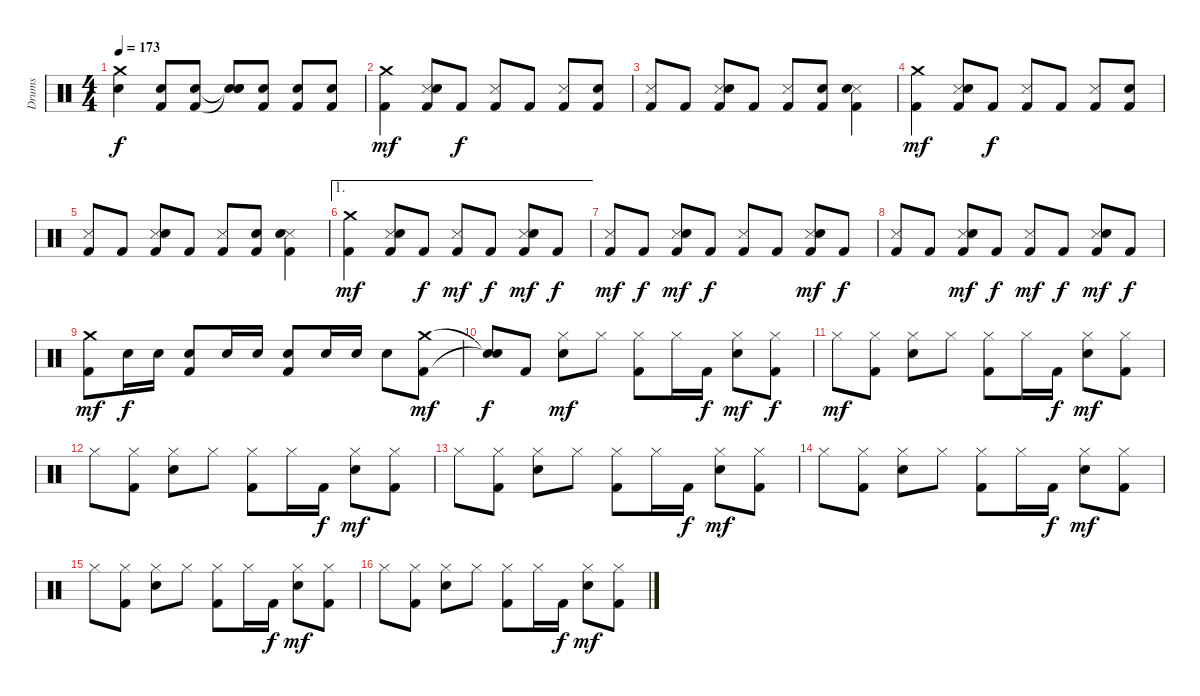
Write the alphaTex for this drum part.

\track ("Drums" "Drums") {instrument percussion}
\staff {score}
\articulation defaults
\ts (4 4)
\tempo 173
\clef neutral
\ks c
("Crash medium (hit)" "Electric Snare (hit)").4{dy f} ("Electric Snare (hit)" "Kick (hit) 2").8 ("Electric Snare (hit)" "Kick (hit) 2").8 ("Snare (hit)"{t} "Snare (hit)"{t} "Snare (hit)").8 ("Electric Snare (hit)" "Kick (hit) 2").8 ("Electric Snare (hit)" "Kick (hit) 2").8 ("Electric Snare (hit)" "Kick (hit) 2").8 |
("Crash medium (hit)" "Kick (hit) 2").4{dy mf} ("Metronome (hit)" "Electric Snare (hit)" "Kick (hit) 2").8 "Kick (hit) 2".8{dy f} ("Metronome (hit)" "Kick (hit) 2").8 "Kick (hit) 2".8 ("Metronome (hit)" "Kick (hit) 2").8 ("Electric Snare (hit)" "Kick (hit) 2").8 |
("Metronome (hit)" "Kick (hit) 2").8 "Kick (hit) 2".8 ("Metronome (hit)" "Electric Snare (hit)" "Kick (hit) 2").8 "Kick (hit) 2".8 ("Metronome (hit)" "Kick (hit) 2").8 ("Electric Snare (hit)" "Kick (hit) 2").8 ("Metronome (hit)" "Electric Snare (hit)" "Kick (hit) 2").4 |
("Crash medium (hit)" "Kick (hit) 2").4{dy mf} ("Metronome (hit)" "Electric Snare (hit)" "Kick (hit) 2").8 "Kick (hit) 2".8{dy f} ("Metronome (hit)" "Kick (hit) 2").8 "Kick (hit) 2".8 ("Metronome (hit)" "Kick (hit) 2").8 ("Electric Snare (hit)" "Kick (hit) 2").8 |
("Metronome (hit)" "Kick (hit) 2").8 "Kick (hit) 2".8 ("Metronome (hit)" "Electric Snare (hit)" "Kick (hit) 2").8 "Kick (hit) 2".8 ("Metronome (hit)" "Kick (hit) 2").8 ("Electric Snare (hit)" "Kick (hit) 2").8 ("Metronome (hit)" "Electric Snare (hit)" "Kick (hit) 2").4 |
\ae 1
("Crash medium (hit)" "Kick (hit) 2").4{dy mf} ("Metronome (hit)" "Electric Snare (hit)" "Kick (hit) 2").8 "Kick (hit) 2".8{dy f} ("Metronome (hit)" "Kick (hit) 2").8{dy mf} "Kick (hit) 2".8{dy f} ("Metronome (hit)" "Electric Snare (hit)" "Kick (hit) 2").8{dy mf} "Kick (hit) 2".8{dy f} |
("Metronome (hit)" "Kick (hit) 2").8{dy mf} "Kick (hit) 2".8{dy f} ("Metronome (hit)" "Electric Snare (hit)" "Kick (hit) 2").8{dy mf} "Kick (hit) 2".8{dy f} ("Metronome (hit)" "Kick (hit) 2").8 "Kick (hit) 2".8 ("Metronome (hit)" "Electric Snare (hit)" "Kick (hit) 2").8{dy mf} "Kick (hit) 2".8{dy f} |
("Metronome (hit)" "Kick (hit) 2").8 "Kick (hit) 2".8 ("Metronome (hit)" "Electric Snare (hit)" "Kick (hit) 2").8{dy mf} "Kick (hit) 2".8{dy f} ("Metronome (hit)" "Kick (hit) 2").8{dy mf} "Kick (hit) 2".8{dy f} ("Metronome (hit)" "Electric Snare (hit)" "Kick (hit) 2").8{dy mf} "Kick (hit) 2".8{dy f} |
("Crash medium (hit)" "Kick (hit) 2").8{dy mf} "Electric Snare (hit)".16{dy f} "Electric Snare (hit)".16 ("Electric Snare (hit)" "Kick (hit) 2").8 "Electric Snare (hit)".16 "Electric Snare (hit)".16 ("Electric Snare (hit)" "Kick (hit) 2").8 "Electric Snare (hit)".16 "Electric Snare (hit)".16 "Electric Snare (hit)".8 ("Crash medium (hit)" "Kick (hit) 2").8{dy mf} |
("Snare (hit)"{t} "Snare (hit)"{t}).8{dy f} "Kick (hit) 2".8 ("Hi-Hat (closed)" "Electric Snare (hit)").8{dy mf} "Hi-Hat (closed)".8 ("Hi-Hat (closed)" "Kick (hit) 2").8 "Hi-Hat (closed)".16 "Kick (hit) 2".16{dy f} ("Hi-Hat (closed)" "Electric Snare (hit)").8{dy mf} ("Hi-Hat (closed)" "Kick (hit) 2").8{dy f} |
"Hi-Hat (closed)".8{dy mf} ("Hi-Hat (closed)" "Kick (hit) 2").8 ("Hi-Hat (closed)" "Electric Snare (hit)").8 "Hi-Hat (closed)".8 ("Hi-Hat (closed)" "Kick (hit) 2").8 "Hi-Hat (closed)".16 "Kick (hit) 2".16{dy f} ("Hi-Hat (closed)" "Electric Snare (hit)").8{dy mf} ("Hi-Hat (closed)" "Kick (hit) 2").8 |
"Hi-Hat (closed)".8 ("Hi-Hat (closed)" "Kick (hit) 2").8 ("Hi-Hat (closed)" "Electric Snare (hit)").8 "Hi-Hat (closed)".8 ("Hi-Hat (closed)" "Kick (hit) 2").8 "Hi-Hat (closed)".16 "Kick (hit) 2".16{dy f} ("Hi-Hat (closed)" "Electric Snare (hit)").8{dy mf} ("Hi-Hat (closed)" "Kick (hit) 2").8 |
"Hi-Hat (closed)".8 ("Hi-Hat (closed)" "Kick (hit) 2").8 ("Hi-Hat (closed)" "Electric Snare (hit)").8 "Hi-Hat (closed)".8 ("Hi-Hat (closed)" "Kick (hit) 2").8 "Hi-Hat (closed)".16 "Kick (hit) 2".16{dy f} ("Hi-Hat (closed)" "Electric Snare (hit)").8{dy mf} ("Hi-Hat (closed)" "Kick (hit) 2").8 |
"Hi-Hat (closed)".8 ("Hi-Hat (closed)" "Kick (hit) 2").8 ("Hi-Hat (closed)" "Electric Snare (hit)").8 "Hi-Hat (closed)".8 ("Hi-Hat (closed)" "Kick (hit) 2").8 "Hi-Hat (closed)".16 "Kick (hit) 2".16{dy f} ("Hi-Hat (closed)" "Electric Snare (hit)").8{dy mf} ("Hi-Hat (closed)" "Kick (hit) 2").8 |
"Hi-Hat (closed)".8 ("Hi-Hat (closed)" "Kick (hit) 2").8 ("Hi-Hat (closed)" "Electric Snare (hit)").8 "Hi-Hat (closed)".8 ("Hi-Hat (closed)" "Kick (hit) 2").8 "Hi-Hat (closed)".16 "Kick (hit) 2".16{dy f} ("Hi-Hat (closed)" "Electric Snare (hit)").8{dy mf} ("Hi-Hat (closed)" "Kick (hit) 2").8 |
"Hi-Hat (closed)".8 ("Hi-Hat (closed)" "Kick (hit) 2").8 ("Hi-Hat (closed)" "Electric Snare (hit)").8 "Hi-Hat (closed)".8 ("Hi-Hat (closed)" "Kick (hit) 2").8 "Hi-Hat (closed)".16 "Kick (hit) 2".16{dy f} ("Hi-Hat (closed)" "Electric Snare (hit)").8{dy mf} ("Hi-Hat (closed)" "Kick (hit) 2").8
